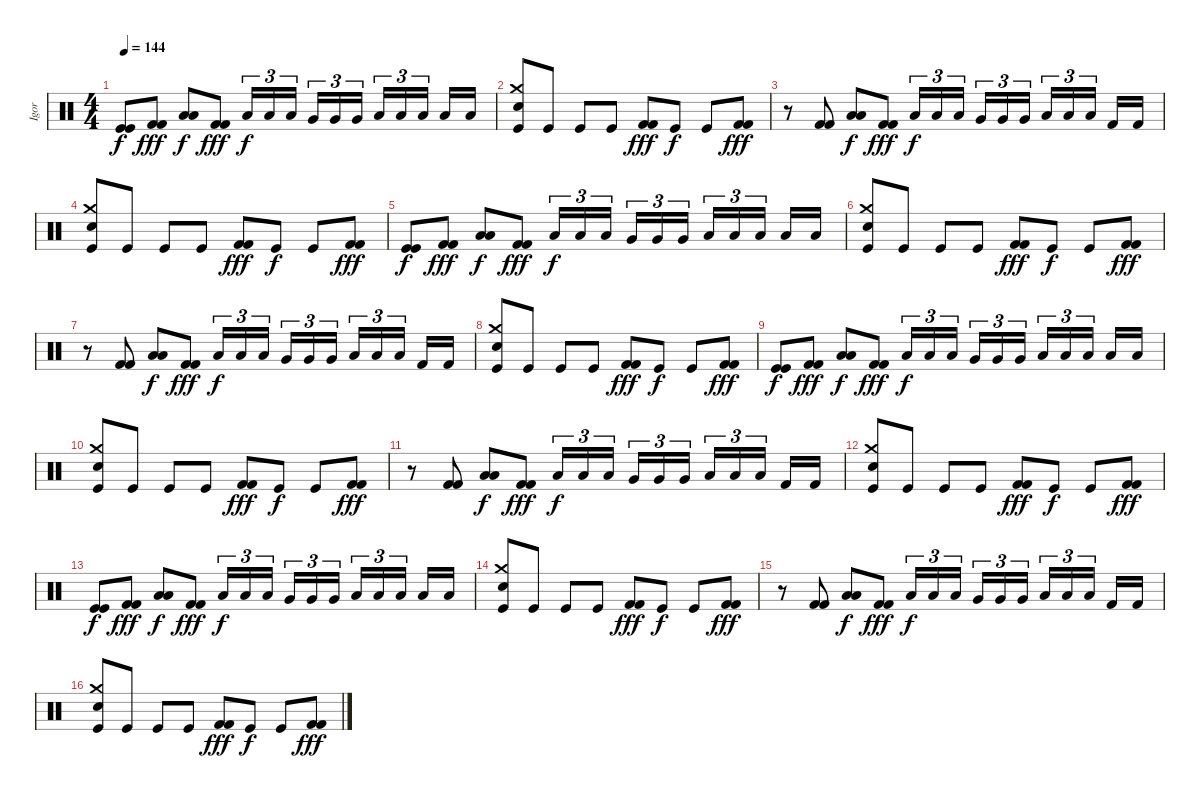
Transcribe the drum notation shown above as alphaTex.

\track ("Igor" "Igor") {instrument percussion}
\staff {score}
\articulation defaults
\ts (4 4)
\tempo 144
\clef neutral
\ks c
("Kick (hit)" "Kick (hit)").8{dy f} ("Kick (hit) 2" "Kick (hit) 2").8{dy fff} ("Low Floor Tom (hit)" "Low Floor Tom (hit)").8{dy f} ("Kick (hit) 2" "Kick (hit) 2").8{dy fff} "Low Tom (hit)".16{tu (3 2) dy f} "Low Tom (hit)".16{tu (3 2)} "Low Tom (hit)".16{tu (3 2)} "Very Low Tom (hit)".16{tu (3 2)} "Very Low Tom (hit)".16{tu (3 2)} "Very Low Tom (hit)".16{tu (3 2)} "Low Floor Tom (hit)".16{tu (3 2)} "Low Floor Tom (hit)".16{tu (3 2)} "Low Floor Tom (hit)".16{tu (3 2)} "Low Floor Tom (hit)".16 "Low Floor Tom (hit)".16 |
("Crash medium (hit)" "Kick (hit)" "Snare (hit) 2").8 "Kick (hit)".8 "Kick (hit)".8 "Kick (hit)".8 ("Kick (hit) 2" "Kick (hit) 2").8{dy fff} "Kick (hit)".8{dy f} "Kick (hit)".8 ("Kick (hit) 2" "Kick (hit) 2").8{dy fff} |
r.8 ("Kick (hit) 2" "Kick (hit) 2").8 ("Low Floor Tom (hit)" "Low Floor Tom (hit)").8{dy f} ("Kick (hit) 2" "Kick (hit) 2").8{dy fff} "Low Tom (hit)".16{tu (3 2) dy f} "Low Tom (hit)".16{tu (3 2)} "Low Tom (hit)".16{tu (3 2)} "Very Low Tom (hit)".16{tu (3 2)} "Very Low Tom (hit)".16{tu (3 2)} "Very Low Tom (hit)".16{tu (3 2)} "Low Floor Tom (hit)".16{tu (3 2)} "Low Floor Tom (hit)".16{tu (3 2)} "Low Floor Tom (hit)".16{tu (3 2)} "Kick (hit) 2".16 "Kick (hit) 2".16 |
("Crash medium (hit)" "Kick (hit)" "Snare (hit) 2").8 "Kick (hit)".8 "Kick (hit)".8 "Kick (hit)".8 ("Kick (hit) 2" "Kick (hit) 2").8{dy fff} "Kick (hit)".8{dy f} "Kick (hit)".8 ("Kick (hit) 2" "Kick (hit) 2").8{dy fff} |
("Kick (hit)" "Kick (hit)").8{dy f} ("Kick (hit) 2" "Kick (hit) 2").8{dy fff} ("Low Floor Tom (hit)" "Low Floor Tom (hit)").8{dy f} ("Kick (hit) 2" "Kick (hit) 2").8{dy fff} "Low Tom (hit)".16{tu (3 2) dy f} "Low Tom (hit)".16{tu (3 2)} "Low Tom (hit)".16{tu (3 2)} "Very Low Tom (hit)".16{tu (3 2)} "Very Low Tom (hit)".16{tu (3 2)} "Very Low Tom (hit)".16{tu (3 2)} "Low Floor Tom (hit)".16{tu (3 2)} "Low Floor Tom (hit)".16{tu (3 2)} "Low Floor Tom (hit)".16{tu (3 2)} "Low Floor Tom (hit)".16 "Low Floor Tom (hit)".16 |
("Crash medium (hit)" "Kick (hit)" "Snare (hit) 2").8 "Kick (hit)".8 "Kick (hit)".8 "Kick (hit)".8 ("Kick (hit) 2" "Kick (hit) 2").8{dy fff} "Kick (hit)".8{dy f} "Kick (hit)".8 ("Kick (hit) 2" "Kick (hit) 2").8{dy fff} |
r.8 ("Kick (hit) 2" "Kick (hit) 2").8 ("Low Floor Tom (hit)" "Low Floor Tom (hit)").8{dy f} ("Kick (hit) 2" "Kick (hit) 2").8{dy fff} "Low Tom (hit)".16{tu (3 2) dy f} "Low Tom (hit)".16{tu (3 2)} "Low Tom (hit)".16{tu (3 2)} "Very Low Tom (hit)".16{tu (3 2)} "Very Low Tom (hit)".16{tu (3 2)} "Very Low Tom (hit)".16{tu (3 2)} "Low Floor Tom (hit)".16{tu (3 2)} "Low Floor Tom (hit)".16{tu (3 2)} "Low Floor Tom (hit)".16{tu (3 2)} "Kick (hit) 2".16 "Kick (hit) 2".16 |
("Crash medium (hit)" "Kick (hit)" "Snare (hit) 2").8 "Kick (hit)".8 "Kick (hit)".8 "Kick (hit)".8 ("Kick (hit) 2" "Kick (hit) 2").8{dy fff} "Kick (hit)".8{dy f} "Kick (hit)".8 ("Kick (hit) 2" "Kick (hit) 2").8{dy fff} |
("Kick (hit)" "Kick (hit)").8{dy f} ("Kick (hit) 2" "Kick (hit) 2").8{dy fff} ("Low Floor Tom (hit)" "Low Floor Tom (hit)").8{dy f} ("Kick (hit) 2" "Kick (hit) 2").8{dy fff} "Low Tom (hit)".16{tu (3 2) dy f} "Low Tom (hit)".16{tu (3 2)} "Low Tom (hit)".16{tu (3 2)} "Very Low Tom (hit)".16{tu (3 2)} "Very Low Tom (hit)".16{tu (3 2)} "Very Low Tom (hit)".16{tu (3 2)} "Low Floor Tom (hit)".16{tu (3 2)} "Low Floor Tom (hit)".16{tu (3 2)} "Low Floor Tom (hit)".16{tu (3 2)} "Low Floor Tom (hit)".16 "Low Floor Tom (hit)".16 |
("Crash medium (hit)" "Kick (hit)" "Snare (hit) 2").8 "Kick (hit)".8 "Kick (hit)".8 "Kick (hit)".8 ("Kick (hit) 2" "Kick (hit) 2").8{dy fff} "Kick (hit)".8{dy f} "Kick (hit)".8 ("Kick (hit) 2" "Kick (hit) 2").8{dy fff} |
r.8 ("Kick (hit) 2" "Kick (hit) 2").8 ("Low Floor Tom (hit)" "Low Floor Tom (hit)").8{dy f} ("Kick (hit) 2" "Kick (hit) 2").8{dy fff} "Low Tom (hit)".16{tu (3 2) dy f} "Low Tom (hit)".16{tu (3 2)} "Low Tom (hit)".16{tu (3 2)} "Very Low Tom (hit)".16{tu (3 2)} "Very Low Tom (hit)".16{tu (3 2)} "Very Low Tom (hit)".16{tu (3 2)} "Low Floor Tom (hit)".16{tu (3 2)} "Low Floor Tom (hit)".16{tu (3 2)} "Low Floor Tom (hit)".16{tu (3 2)} "Kick (hit) 2".16 "Kick (hit) 2".16 |
("Crash medium (hit)" "Kick (hit)" "Snare (hit) 2").8 "Kick (hit)".8 "Kick (hit)".8 "Kick (hit)".8 ("Kick (hit) 2" "Kick (hit) 2").8{dy fff} "Kick (hit)".8{dy f} "Kick (hit)".8 ("Kick (hit) 2" "Kick (hit) 2").8{dy fff} |
("Kick (hit)" "Kick (hit)").8{dy f} ("Kick (hit) 2" "Kick (hit) 2").8{dy fff} ("Low Floor Tom (hit)" "Low Floor Tom (hit)").8{dy f} ("Kick (hit) 2" "Kick (hit) 2").8{dy fff} "Low Tom (hit)".16{tu (3 2) dy f} "Low Tom (hit)".16{tu (3 2)} "Low Tom (hit)".16{tu (3 2)} "Very Low Tom (hit)".16{tu (3 2)} "Very Low Tom (hit)".16{tu (3 2)} "Very Low Tom (hit)".16{tu (3 2)} "Low Floor Tom (hit)".16{tu (3 2)} "Low Floor Tom (hit)".16{tu (3 2)} "Low Floor Tom (hit)".16{tu (3 2)} "Low Floor Tom (hit)".16 "Low Floor Tom (hit)".16 |
("Crash medium (hit)" "Kick (hit)" "Snare (hit) 2").8 "Kick (hit)".8 "Kick (hit)".8 "Kick (hit)".8 ("Kick (hit) 2" "Kick (hit) 2").8{dy fff} "Kick (hit)".8{dy f} "Kick (hit)".8 ("Kick (hit) 2" "Kick (hit) 2").8{dy fff} |
r.8 ("Kick (hit) 2" "Kick (hit) 2").8 ("Low Floor Tom (hit)" "Low Floor Tom (hit)").8{dy f} ("Kick (hit) 2" "Kick (hit) 2").8{dy fff} "Low Tom (hit)".16{tu (3 2) dy f} "Low Tom (hit)".16{tu (3 2)} "Low Tom (hit)".16{tu (3 2)} "Very Low Tom (hit)".16{tu (3 2)} "Very Low Tom (hit)".16{tu (3 2)} "Very Low Tom (hit)".16{tu (3 2)} "Low Floor Tom (hit)".16{tu (3 2)} "Low Floor Tom (hit)".16{tu (3 2)} "Low Floor Tom (hit)".16{tu (3 2)} "Kick (hit) 2".16 "Kick (hit) 2".16 |
("Crash medium (hit)" "Kick (hit)" "Snare (hit) 2").8 "Kick (hit)".8 "Kick (hit)".8 "Kick (hit)".8 ("Kick (hit) 2" "Kick (hit) 2").8{dy fff} "Kick (hit)".8{dy f} "Kick (hit)".8 ("Kick (hit) 2" "Kick (hit) 2").8{dy fff}
